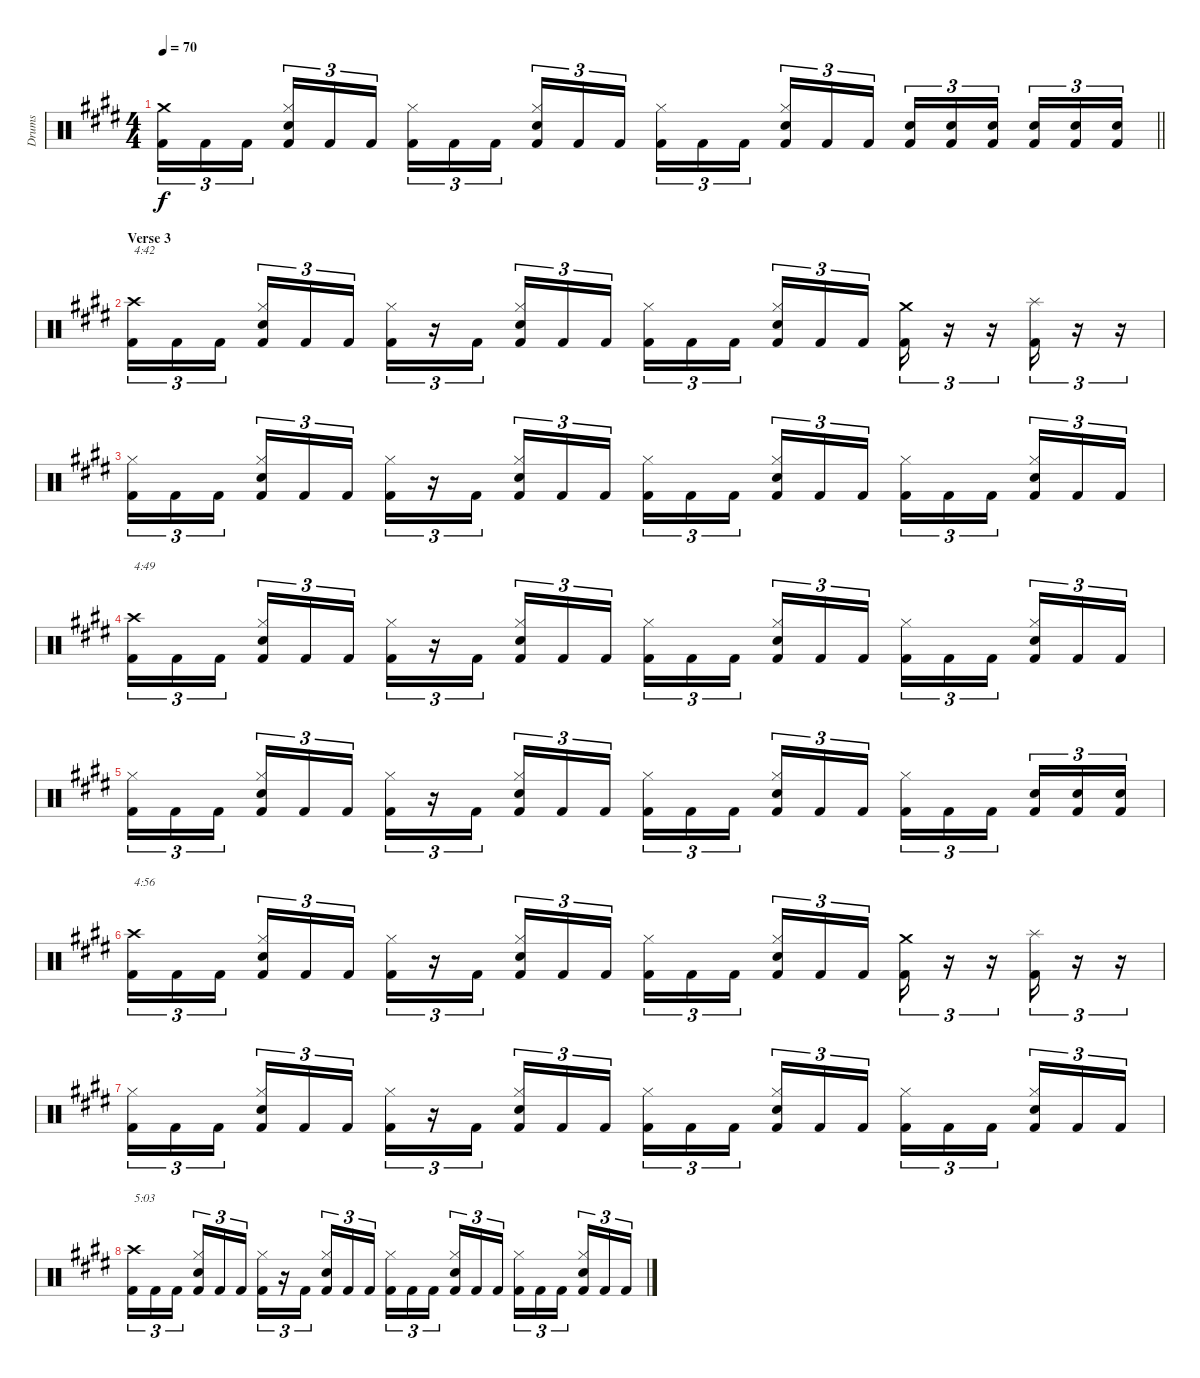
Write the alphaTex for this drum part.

\track ("Drums" "Drums") {instrument percussion}
\staff {score}
\articulation defaults
\ts (4 4)
\tempo 70
\clef neutral
\barLineRight lightlight
\ks c#minor
("Crash medium (hit)" "Kick (hit) 2").16{tu (3 2) dy f} "Kick (hit) 2".16{tu (3 2)} "Kick (hit) 2".16{tu (3 2) beam splitsecondary} ("Hi-Hat (closed)" "Snare (hit) 2" "Kick (hit) 2").16{tu (3 2)} "Kick (hit) 2".16{tu (3 2)} "Kick (hit) 2".16{tu (3 2)} ("Hi-Hat (closed)" "Kick (hit) 2").16{tu (3 2)} "Kick (hit) 2".16{tu (3 2)} "Kick (hit) 2".16{tu (3 2) beam splitsecondary} ("Hi-Hat (closed)" "Snare (hit) 2" "Kick (hit) 2").16{tu (3 2)} "Kick (hit) 2".16{tu (3 2)} "Kick (hit) 2".16{tu (3 2)} ("Hi-Hat (closed)" "Kick (hit) 2").16{tu (3 2)} "Kick (hit) 2".16{tu (3 2)} "Kick (hit) 2".16{tu (3 2) beam splitsecondary} ("Hi-Hat (closed)" "Snare (hit) 2" "Kick (hit) 2").16{tu (3 2)} "Kick (hit) 2".16{tu (3 2)} "Kick (hit) 2".16{tu (3 2)} ("Snare (hit) 2" "Kick (hit) 2").16{tu (3 2)} ("Snare (hit) 2" "Kick (hit) 2").16{tu (3 2)} ("Snare (hit) 2" "Kick (hit) 2").16{tu (3 2) beam splitsecondary} ("Snare (hit) 2" "Kick (hit) 2").16{tu (3 2)} ("Snare (hit) 2" "Kick (hit) 2").16{tu (3 2)} ("Snare (hit) 2" "Kick (hit) 2").16{tu (3 2)} |
\section ("" "Verse 3")
("Crash high (hit)" "Kick (hit) 2").16{tu (3 2) txt "4:42"} "Kick (hit) 2".16{tu (3 2)} "Kick (hit) 2".16{tu (3 2) beam splitsecondary} ("Hi-Hat (closed)" "Snare (hit) 2" "Kick (hit) 2").16{tu (3 2)} "Kick (hit) 2".16{tu (3 2)} "Kick (hit) 2".16{tu (3 2)} ("Hi-Hat (closed)" "Kick (hit) 2").16{tu (3 2)} r.16{tu (3 2)} "Kick (hit) 2".16{tu (3 2) beam splitsecondary} ("Hi-Hat (closed)" "Snare (hit) 2" "Kick (hit) 2").16{tu (3 2)} "Kick (hit) 2".16{tu (3 2)} "Kick (hit) 2".16{tu (3 2)} ("Hi-Hat (closed)" "Kick (hit) 2").16{tu (3 2)} "Kick (hit) 2".16{tu (3 2)} "Kick (hit) 2".16{tu (3 2) beam splitsecondary} ("Hi-Hat (closed)" "Snare (hit) 2" "Kick (hit) 2").16{tu (3 2)} "Kick (hit) 2".16{tu (3 2)} "Kick (hit) 2".16{tu (3 2)} ("Crash medium (hit)" "Kick (hit) 2").16{tu (3 2)} r.16{tu (3 2)} r.16{tu (3 2)} ("Splash (hit)" "Kick (hit) 2").16{tu (3 2)} r.16{tu (3 2)} r.16{tu (3 2)} |
("Hi-Hat (closed)" "Kick (hit) 2").16{tu (3 2)} "Kick (hit) 2".16{tu (3 2)} "Kick (hit) 2".16{tu (3 2) beam splitsecondary} ("Hi-Hat (closed)" "Snare (hit) 2" "Kick (hit) 2").16{tu (3 2)} "Kick (hit) 2".16{tu (3 2)} "Kick (hit) 2".16{tu (3 2)} ("Hi-Hat (closed)" "Kick (hit) 2").16{tu (3 2)} r.16{tu (3 2)} "Kick (hit) 2".16{tu (3 2) beam splitsecondary} ("Hi-Hat (closed)" "Snare (hit) 2" "Kick (hit) 2").16{tu (3 2)} "Kick (hit) 2".16{tu (3 2)} "Kick (hit) 2".16{tu (3 2)} ("Hi-Hat (closed)" "Kick (hit) 2").16{tu (3 2)} "Kick (hit) 2".16{tu (3 2)} "Kick (hit) 2".16{tu (3 2) beam splitsecondary} ("Hi-Hat (closed)" "Snare (hit) 2" "Kick (hit) 2").16{tu (3 2)} "Kick (hit) 2".16{tu (3 2)} "Kick (hit) 2".16{tu (3 2)} ("Hi-Hat (closed)" "Kick (hit) 2").16{tu (3 2)} "Kick (hit) 2".16{tu (3 2)} "Kick (hit) 2".16{tu (3 2) beam splitsecondary} ("Hi-Hat (closed)" "Snare (hit) 2" "Kick (hit) 2").16{tu (3 2)} "Kick (hit) 2".16{tu (3 2)} "Kick (hit) 2".16{tu (3 2)} |
("Crash high (hit)" "Kick (hit) 2").16{tu (3 2) txt "4:49"} "Kick (hit) 2".16{tu (3 2)} "Kick (hit) 2".16{tu (3 2) beam splitsecondary} ("Hi-Hat (closed)" "Snare (hit) 2" "Kick (hit) 2").16{tu (3 2)} "Kick (hit) 2".16{tu (3 2)} "Kick (hit) 2".16{tu (3 2)} ("Hi-Hat (closed)" "Kick (hit) 2").16{tu (3 2)} r.16{tu (3 2)} "Kick (hit) 2".16{tu (3 2) beam splitsecondary} ("Hi-Hat (closed)" "Snare (hit) 2" "Kick (hit) 2").16{tu (3 2)} "Kick (hit) 2".16{tu (3 2)} "Kick (hit) 2".16{tu (3 2)} ("Hi-Hat (closed)" "Kick (hit) 2").16{tu (3 2)} "Kick (hit) 2".16{tu (3 2)} "Kick (hit) 2".16{tu (3 2) beam splitsecondary} ("Hi-Hat (closed)" "Snare (hit) 2" "Kick (hit) 2").16{tu (3 2)} "Kick (hit) 2".16{tu (3 2)} "Kick (hit) 2".16{tu (3 2)} ("Hi-Hat (closed)" "Kick (hit) 2").16{tu (3 2)} "Kick (hit) 2".16{tu (3 2)} "Kick (hit) 2".16{tu (3 2) beam splitsecondary} ("Hi-Hat (closed)" "Snare (hit) 2" "Kick (hit) 2").16{tu (3 2)} "Kick (hit) 2".16{tu (3 2)} "Kick (hit) 2".16{tu (3 2)} |
("Hi-Hat (closed)" "Kick (hit) 2").16{tu (3 2)} "Kick (hit) 2".16{tu (3 2)} "Kick (hit) 2".16{tu (3 2) beam splitsecondary} ("Hi-Hat (closed)" "Snare (hit) 2" "Kick (hit) 2").16{tu (3 2)} "Kick (hit) 2".16{tu (3 2)} "Kick (hit) 2".16{tu (3 2)} ("Hi-Hat (closed)" "Kick (hit) 2").16{tu (3 2)} r.16{tu (3 2)} "Kick (hit) 2".16{tu (3 2) beam splitsecondary} ("Hi-Hat (closed)" "Snare (hit) 2" "Kick (hit) 2").16{tu (3 2)} "Kick (hit) 2".16{tu (3 2)} "Kick (hit) 2".16{tu (3 2)} ("Hi-Hat (closed)" "Kick (hit) 2").16{tu (3 2)} "Kick (hit) 2".16{tu (3 2)} "Kick (hit) 2".16{tu (3 2) beam splitsecondary} ("Hi-Hat (closed)" "Snare (hit) 2" "Kick (hit) 2").16{tu (3 2)} "Kick (hit) 2".16{tu (3 2)} "Kick (hit) 2".16{tu (3 2)} ("Hi-Hat (closed)" "Kick (hit) 2").16{tu (3 2)} "Kick (hit) 2".16{tu (3 2)} "Kick (hit) 2".16{tu (3 2) beam splitsecondary} ("Snare (hit) 2" "Kick (hit) 2").16{tu (3 2)} ("Snare (hit) 2" "Kick (hit) 2").16{tu (3 2)} ("Snare (hit) 2" "Kick (hit) 2").16{tu (3 2)} |
("Crash high (hit)" "Kick (hit) 2").16{tu (3 2) txt "4:56"} "Kick (hit) 2".16{tu (3 2)} "Kick (hit) 2".16{tu (3 2) beam splitsecondary} ("Hi-Hat (closed)" "Snare (hit) 2" "Kick (hit) 2").16{tu (3 2)} "Kick (hit) 2".16{tu (3 2)} "Kick (hit) 2".16{tu (3 2)} ("Hi-Hat (closed)" "Kick (hit) 2").16{tu (3 2)} r.16{tu (3 2)} "Kick (hit) 2".16{tu (3 2) beam splitsecondary} ("Hi-Hat (closed)" "Snare (hit) 2" "Kick (hit) 2").16{tu (3 2)} "Kick (hit) 2".16{tu (3 2)} "Kick (hit) 2".16{tu (3 2)} ("Hi-Hat (closed)" "Kick (hit) 2").16{tu (3 2)} "Kick (hit) 2".16{tu (3 2)} "Kick (hit) 2".16{tu (3 2) beam splitsecondary} ("Hi-Hat (closed)" "Snare (hit) 2" "Kick (hit) 2").16{tu (3 2)} "Kick (hit) 2".16{tu (3 2)} "Kick (hit) 2".16{tu (3 2)} ("Crash medium (hit)" "Kick (hit) 2").16{tu (3 2)} r.16{tu (3 2)} r.16{tu (3 2)} ("Splash (hit)" "Kick (hit) 2").16{tu (3 2)} r.16{tu (3 2)} r.16{tu (3 2)} |
("Hi-Hat (closed)" "Kick (hit) 2").16{tu (3 2)} "Kick (hit) 2".16{tu (3 2)} "Kick (hit) 2".16{tu (3 2) beam splitsecondary} ("Hi-Hat (closed)" "Snare (hit) 2" "Kick (hit) 2").16{tu (3 2)} "Kick (hit) 2".16{tu (3 2)} "Kick (hit) 2".16{tu (3 2)} ("Hi-Hat (closed)" "Kick (hit) 2").16{tu (3 2)} r.16{tu (3 2)} "Kick (hit) 2".16{tu (3 2) beam splitsecondary} ("Hi-Hat (closed)" "Snare (hit) 2" "Kick (hit) 2").16{tu (3 2)} "Kick (hit) 2".16{tu (3 2)} "Kick (hit) 2".16{tu (3 2)} ("Hi-Hat (closed)" "Kick (hit) 2").16{tu (3 2)} "Kick (hit) 2".16{tu (3 2)} "Kick (hit) 2".16{tu (3 2) beam splitsecondary} ("Hi-Hat (closed)" "Snare (hit) 2" "Kick (hit) 2").16{tu (3 2)} "Kick (hit) 2".16{tu (3 2)} "Kick (hit) 2".16{tu (3 2)} ("Hi-Hat (closed)" "Kick (hit) 2").16{tu (3 2)} "Kick (hit) 2".16{tu (3 2)} "Kick (hit) 2".16{tu (3 2) beam splitsecondary} ("Hi-Hat (closed)" "Snare (hit) 2" "Kick (hit) 2").16{tu (3 2)} "Kick (hit) 2".16{tu (3 2)} "Kick (hit) 2".16{tu (3 2)} |
("Crash high (hit)" "Kick (hit) 2").16{tu (3 2) txt "5:03"} "Kick (hit) 2".16{tu (3 2)} "Kick (hit) 2".16{tu (3 2) beam splitsecondary} ("Hi-Hat (closed)" "Snare (hit) 2" "Kick (hit) 2").16{tu (3 2)} "Kick (hit) 2".16{tu (3 2)} "Kick (hit) 2".16{tu (3 2)} ("Hi-Hat (closed)" "Kick (hit) 2").16{tu (3 2)} r.16{tu (3 2)} "Kick (hit) 2".16{tu (3 2) beam splitsecondary} ("Hi-Hat (closed)" "Snare (hit) 2" "Kick (hit) 2").16{tu (3 2)} "Kick (hit) 2".16{tu (3 2)} "Kick (hit) 2".16{tu (3 2)} ("Hi-Hat (closed)" "Kick (hit) 2").16{tu (3 2)} "Kick (hit) 2".16{tu (3 2)} "Kick (hit) 2".16{tu (3 2) beam splitsecondary} ("Hi-Hat (closed)" "Snare (hit) 2" "Kick (hit) 2").16{tu (3 2)} "Kick (hit) 2".16{tu (3 2)} "Kick (hit) 2".16{tu (3 2)} ("Hi-Hat (closed)" "Kick (hit) 2").16{tu (3 2)} "Kick (hit) 2".16{tu (3 2)} "Kick (hit) 2".16{tu (3 2) beam splitsecondary} ("Hi-Hat (closed)" "Snare (hit) 2" "Kick (hit) 2").16{tu (3 2)} "Kick (hit) 2".16{tu (3 2)} "Kick (hit) 2".16{tu (3 2)}
